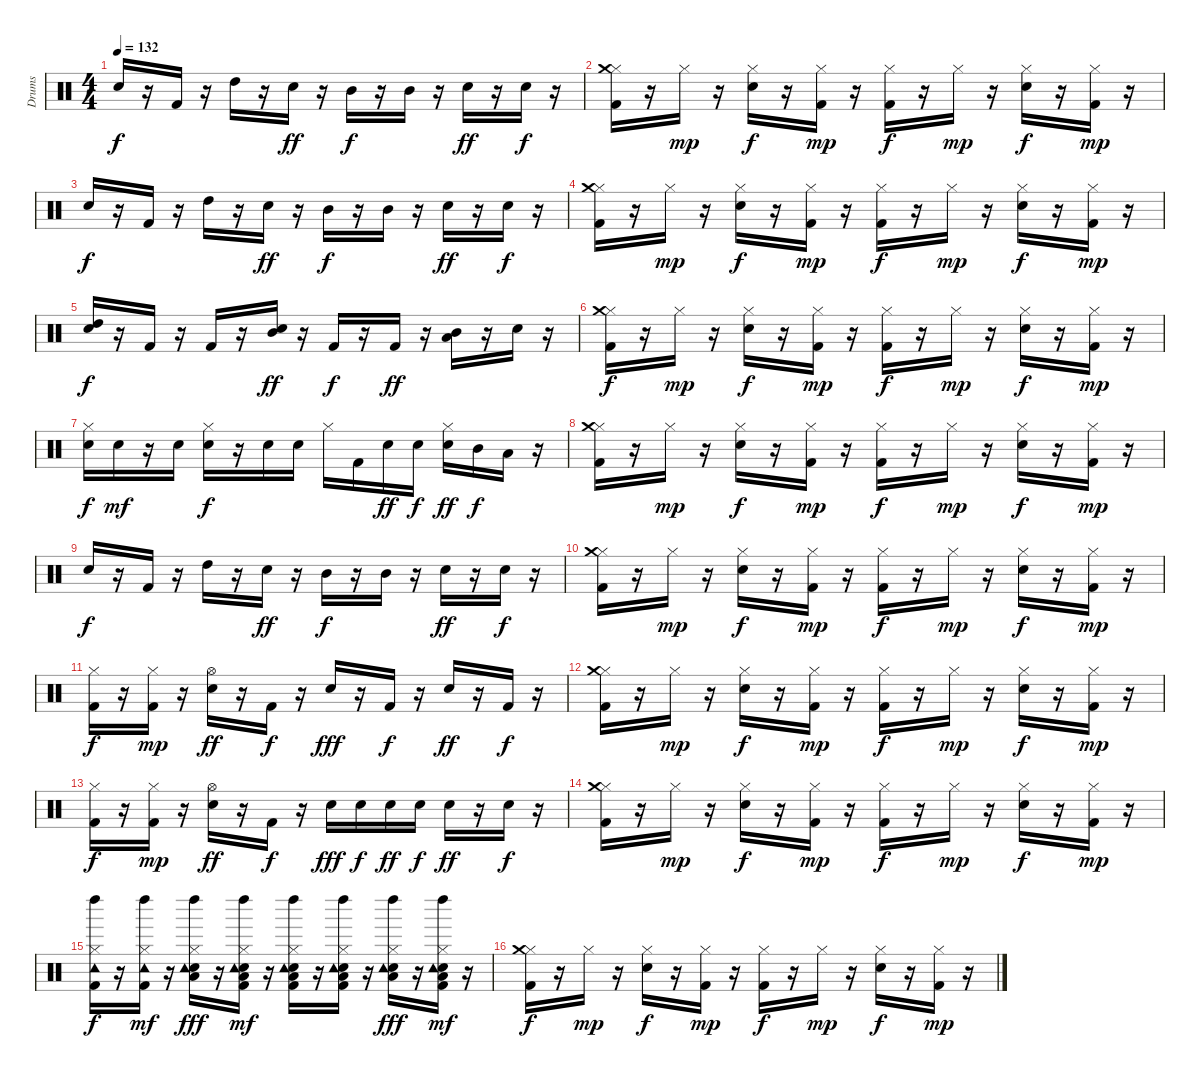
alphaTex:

\track ("Drums" "Drums") {instrument percussion}
\staff {score}
\articulation defaults
\ts (4 4)
\tempo 132
\clef neutral
\ks c "Snare (hit) 2".16{dy f}
r.16 "Kick (hit) 2".16 r.16 "High Tom (hit)".16 r.16 "Snare (hit) 2".16{dy ff} r.16 "Mid Tom (hit)".16{dy f} r.16 "Mid Tom (hit)".16 r.16 "Snare (hit) 2".16{dy ff} r.16 "Snare (hit) 2".16{dy f} r.16 |
("Kick (hit) 2" "Hi-Hat (closed)" "Crash medium (hit)").16 r.16 "Hi-Hat (closed)".16{dy mp} r.16 ("Snare (hit) 2" "Hi-Hat (closed)").16{dy f} r.16 ("Kick (hit) 2" "Hi-Hat (closed)").16{dy mp} r.16 ("Kick (hit) 2" "Hi-Hat (closed)").16{dy f} r.16 "Hi-Hat (closed)".16{dy mp} r.16 ("Snare (hit) 2" "Hi-Hat (closed)").16{dy f} r.16 ("Kick (hit) 2" "Hi-Hat (closed)").16{dy mp} r.16 |
"Snare (hit) 2".16{dy f} r.16 "Kick (hit) 2".16 r.16 "High Tom (hit)".16 r.16 "Snare (hit) 2".16{dy ff} r.16 "Mid Tom (hit)".16{dy f} r.16 "Mid Tom (hit)".16 r.16 "Snare (hit) 2".16{dy ff} r.16 "Snare (hit) 2".16{dy f} r.16 |
("Kick (hit) 2" "Hi-Hat (closed)" "Crash medium (hit)").16 r.16 "Hi-Hat (closed)".16{dy mp} r.16 ("Snare (hit) 2" "Hi-Hat (closed)").16{dy f} r.16 ("Kick (hit) 2" "Hi-Hat (closed)").16{dy mp} r.16 ("Kick (hit) 2" "Hi-Hat (closed)").16{dy f} r.16 "Hi-Hat (closed)".16{dy mp} r.16 ("Snare (hit) 2" "Hi-Hat (closed)").16{dy f} r.16 ("Kick (hit) 2" "Hi-Hat (closed)").16{dy mp} r.16 |
("Snare (hit) 2" "High Tom (hit)").16{dy f} r.16 "Kick (hit) 2".16 r.16 "Kick (hit) 2".16 r.16 ("Snare (hit) 2" "Mid Tom (hit)").16{dy ff} r.16 "Kick (hit) 2".16{dy f} r.16 "Kick (hit) 2".16{dy ff} r.16 ("Low Floor Tom (hit)" "Mid Tom (hit)").16 r.16 "Snare (hit) 2".16 r.16 |
("Kick (hit) 2" "Hi-Hat (closed)" "Crash medium (hit)").16{dy f} r.16 "Hi-Hat (closed)".16{dy mp} r.16 ("Snare (hit) 2" "Hi-Hat (closed)").16{dy f} r.16 ("Kick (hit) 2" "Hi-Hat (closed)").16{dy mp} r.16 ("Kick (hit) 2" "Hi-Hat (closed)").16{dy f} r.16 "Hi-Hat (closed)".16{dy mp} r.16 ("Snare (hit) 2" "Hi-Hat (closed)").16{dy f} r.16 ("Kick (hit) 2" "Hi-Hat (closed)").16{dy mp} r.16 |
("Snare (hit) 2" "Hi-Hat (closed)").16{dy f} "Snare (hit) 2".16{dy mf} r.16 "Snare (hit) 2".16 ("Snare (hit) 2" "Hi-Hat (closed)").16{dy f} r.16 "Snare (hit) 2".16 "Snare (hit) 2".16 "Hi-Hat (closed)".16 "Kick (hit) 2".16 "Snare (hit) 2".16{dy ff} "Snare (hit) 2".16{dy f} ("Snare (hit) 2" "Hi-Hat (closed)").16{dy ff} "Mid Tom (hit)".16{dy f} "Low Floor Tom (hit)".16 r.16 |
("Kick (hit) 2" "Hi-Hat (closed)" "Crash medium (hit)").16 r.16 "Hi-Hat (closed)".16{dy mp} r.16 ("Snare (hit) 2" "Hi-Hat (closed)").16{dy f} r.16 ("Kick (hit) 2" "Hi-Hat (closed)").16{dy mp} r.16 ("Kick (hit) 2" "Hi-Hat (closed)").16{dy f} r.16 "Hi-Hat (closed)".16{dy mp} r.16 ("Snare (hit) 2" "Hi-Hat (closed)").16{dy f} r.16 ("Kick (hit) 2" "Hi-Hat (closed)").16{dy mp} r.16 |
"Snare (hit) 2".16{dy f} r.16 "Kick (hit) 2".16 r.16 "High Tom (hit)".16 r.16 "Snare (hit) 2".16{dy ff} r.16 "Mid Tom (hit)".16{dy f} r.16 "Mid Tom (hit)".16 r.16 "Snare (hit) 2".16{dy ff} r.16 "Snare (hit) 2".16{dy f} r.16 |
("Kick (hit) 2" "Hi-Hat (closed)" "Crash medium (hit)").16 r.16 "Hi-Hat (closed)".16{dy mp} r.16 ("Snare (hit) 2" "Hi-Hat (closed)").16{dy f} r.16 ("Kick (hit) 2" "Hi-Hat (closed)").16{dy mp} r.16 ("Kick (hit) 2" "Hi-Hat (closed)").16{dy f} r.16 "Hi-Hat (closed)".16{dy mp} r.16 ("Snare (hit) 2" "Hi-Hat (closed)").16{dy f} r.16 ("Kick (hit) 2" "Hi-Hat (closed)").16{dy mp} r.16 |
("Kick (hit) 2" "Hi-Hat (closed)").16{dy f} r.16 ("Kick (hit) 2" "Hi-Hat (closed)").16{dy mp} r.16 ("Snare (hit) 2" "Hi-Hat (open)").16{dy ff} r.16 "Kick (hit) 2".16{dy f} r.16 "Snare (hit) 2".16{dy fff} r.16 "Kick (hit) 2".16{dy f} r.16 "Snare (hit) 2".16{dy ff} r.16 "Kick (hit) 2".16{dy f} r.16 |
("Kick (hit) 2" "Hi-Hat (closed)" "Crash medium (hit)").16 r.16 "Hi-Hat (closed)".16{dy mp} r.16 ("Snare (hit) 2" "Hi-Hat (closed)").16{dy f} r.16 ("Kick (hit) 2" "Hi-Hat (closed)").16{dy mp} r.16 ("Kick (hit) 2" "Hi-Hat (closed)").16{dy f} r.16 "Hi-Hat (closed)".16{dy mp} r.16 ("Snare (hit) 2" "Hi-Hat (closed)").16{dy f} r.16 ("Kick (hit) 2" "Hi-Hat (closed)").16{dy mp} r.16 |
("Kick (hit) 2" "Hi-Hat (closed)").16{dy f} r.16 ("Kick (hit) 2" "Hi-Hat (closed)").16{dy mp} r.16 ("Snare (hit) 2" "Hi-Hat (open)").16{dy ff} r.16 "Kick (hit) 2".16{dy f} r.16 "Snare (hit) 2".16{dy fff} "Snare (hit) 2".16{dy f} "Snare (hit) 2".16{dy ff} "Snare (hit) 2".16{dy f} "Snare (hit) 2".16{dy ff} r.16 "Snare (hit) 2".16{dy f} r.16 |
("Kick (hit) 2" "Hi-Hat (closed)" "Crash medium (hit)").16 r.16 "Hi-Hat (closed)".16{dy mp} r.16 ("Snare (hit) 2" "Hi-Hat (closed)").16{dy f} r.16 ("Kick (hit) 2" "Hi-Hat (closed)").16{dy mp} r.16 ("Kick (hit) 2" "Hi-Hat (closed)").16{dy f} r.16 "Hi-Hat (closed)".16{dy mp} r.16 ("Snare (hit) 2" "Hi-Hat (closed)").16{dy f} r.16 ("Kick (hit) 2" "Hi-Hat (closed)").16{dy mp} r.16 |
("Kick (hit) 2" "Hi-Hat (closed)" "Tambourine (hit)" "Left Maraca (hit)").16{dy f} r.16 ("Kick (hit) 2" "Hi-Hat (closed)" "Tambourine (hit)" "Left Maraca (hit)").16{dy mf} r.16 ("Snare (hit) 2" "Hi-Hat (closed)" "Low Floor Tom (hit)" "Tambourine (hit)" "Left Maraca (hit)").16{dy fff} r.16 ("Kick (hit) 2" "Snare (hit) 2" "Hi-Hat (closed)" "Low Floor Tom (hit)" "Tambourine (hit)" "Left Maraca (hit)").16{dy mf} r.16 ("Kick (hit) 2" "Snare (hit) 2" "Hi-Hat (closed)" "Low Floor Tom (hit)" "Tambourine (hit)" "Left Maraca (hit)").16 r.16 ("Kick (hit) 2" "Snare (hit) 2" "Hi-Hat (closed)" "Low Floor Tom (hit)" "Tambourine (hit)" "Left Maraca (hit)").16 r.16 ("Snare (hit) 2" "Hi-Hat (closed)" "Low Floor Tom (hit)" "Tambourine (hit)" "Left Maraca (hit)").16{dy fff} r.16 ("Kick (hit) 2" "Snare (hit) 2" "Hi-Hat (closed)" "Low Floor Tom (hit)" "Tambourine (hit)" "Left Maraca (hit)").16{dy mf} r.16 |
("Kick (hit) 2" "Hi-Hat (closed)" "Crash medium (hit)").16{dy f} r.16 "Hi-Hat (closed)".16{dy mp} r.16 ("Snare (hit) 2" "Hi-Hat (closed)").16{dy f} r.16 ("Kick (hit) 2" "Hi-Hat (closed)").16{dy mp} r.16 ("Kick (hit) 2" "Hi-Hat (closed)").16{dy f} r.16 "Hi-Hat (closed)".16{dy mp} r.16 ("Snare (hit) 2" "Hi-Hat (closed)").16{dy f} r.16 ("Kick (hit) 2" "Hi-Hat (closed)").16{dy mp} r.16
